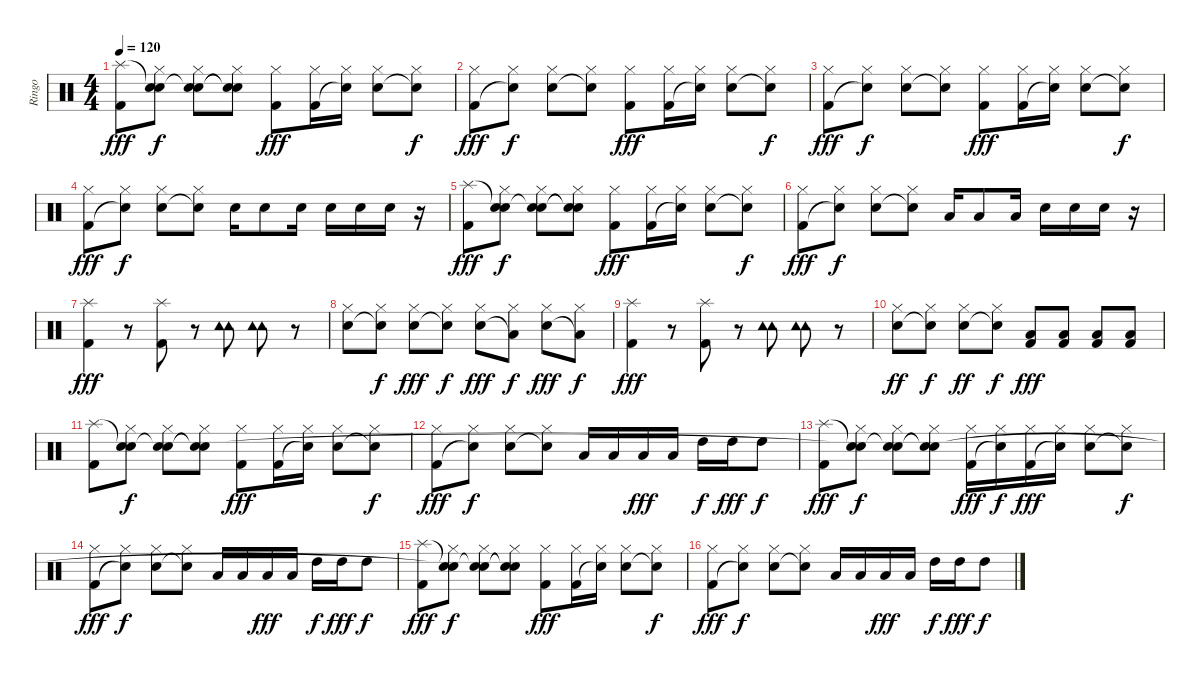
\track ("Ringo" "Ringo") {instrument percussion}
\staff {score}
\articulation defaults
\ts (4 4)
\tempo 120
\clef neutral
\ks c
("Splash (hit)" "Kick (hit) 2").8{dy fff} ("Snare (hit)"{t} "Hi-Hat (closed)" "Snare (hit)").8{dy f} ("Snare (hit)"{t} "Hi-Hat (closed)" "Snare (hit) 2").8 ("Snare (hit)"{t} "Hi-Hat (closed)" "Snare (hit)"{t}).8 ("Hi-Hat (closed)" "Kick (hit) 2").8{dy fff} ("Hi-Hat (closed)" "Kick (hit) 2").16 ("Hi-Hat (closed)" "Snare (hit)"{t}).16 ("Hi-Hat (closed)" "Snare (hit) 2").8 ("Hi-Hat (closed)" "Snare (hit)"{t}).8{dy f} |
("Hi-Hat (closed)" "Kick (hit) 2").8{dy fff} ("Hi-Hat (closed)" "Snare (hit)"{t}).8{dy f} ("Hi-Hat (closed)" "Snare (hit) 2").8 ("Hi-Hat (closed)" "Snare (hit)"{t}).8 ("Hi-Hat (closed)" "Kick (hit) 2").8{dy fff} ("Hi-Hat (closed)" "Kick (hit) 2").16 ("Hi-Hat (closed)" "Snare (hit)"{t}).16 ("Hi-Hat (closed)" "Snare (hit) 2").8 ("Hi-Hat (closed)" "Snare (hit)"{t}).8{dy f} |
("Hi-Hat (closed)" "Kick (hit) 2").8{dy fff} ("Hi-Hat (closed)" "Snare (hit)"{t}).8{dy f} ("Hi-Hat (closed)" "Snare (hit) 2").8 ("Hi-Hat (closed)" "Snare (hit)"{t}).8 ("Hi-Hat (closed)" "Kick (hit) 2").8{dy fff} ("Hi-Hat (closed)" "Kick (hit) 2").16 ("Hi-Hat (closed)" "Snare (hit)"{t}).16 ("Hi-Hat (closed)" "Snare (hit) 2").8 ("Hi-Hat (closed)" "Snare (hit)"{t}).8{dy f} |
("Hi-Hat (closed)" "Kick (hit) 2").8{dy fff} ("Hi-Hat (closed)" "Snare (hit)"{t}).8{dy f} ("Hi-Hat (closed)" "Snare (hit) 2").8 ("Hi-Hat (closed)" "Snare (hit)"{t}).8 "Snare (hit) 2".16 "Snare (hit) 2".8 "Snare (hit) 2".16 "Snare (hit) 2".16 "Snare (hit) 2".16 "Snare (hit) 2".16 r.16 |
("Splash (hit)" "Kick (hit) 2").8{dy fff} ("Snare (hit)"{t} "Hi-Hat (closed)" "Snare (hit)").8{dy f} ("Snare (hit)"{t} "Hi-Hat (closed)" "Snare (hit) 2").8 ("Snare (hit)"{t} "Hi-Hat (closed)" "Snare (hit)"{t}).8 ("Hi-Hat (closed)" "Kick (hit) 2").8{dy fff} ("Hi-Hat (closed)" "Kick (hit) 2").16 ("Hi-Hat (closed)" "Snare (hit)"{t}).16 ("Hi-Hat (closed)" "Snare (hit) 2").8 ("Hi-Hat (closed)" "Snare (hit)"{t}).8{dy f} |
("Hi-Hat (closed)" "Kick (hit) 2").8{dy fff} ("Hi-Hat (closed)" "Snare (hit)"{t}).8{dy f} ("Hi-Hat (closed)" "Snare (hit) 2").8 ("Hi-Hat (closed)" "Snare (hit)"{t}).8 "Low Floor Tom (hit)".16 "Low Floor Tom (hit)".8 "Low Floor Tom (hit)".16 "Snare (hit) 2".16 "Snare (hit) 2".16 "Snare (hit) 2".16 r.16 |
("Splash (hit)" "Kick (hit) 2").4{dy fff} r.8 ("Splash (hit)" "Kick (hit) 2").8 r.8 ("Tambourine (hit)" "Tambourine (hit)").8 ("Tambourine (hit)" "Tambourine (hit)").8 r.8 |
("Hi-Hat (closed)" "Snare (hit) 2").8 ("Hi-Hat (closed)" "Snare (hit)"{t}).8{dy f} ("Hi-Hat (closed)" "Snare (hit) 2").8{dy fff} ("Hi-Hat (closed)" "Snare (hit)"{t}).8{dy f} ("Hi-Hat (closed)" "Snare (hit) 2").8{dy fff} ("Hi-Hat (closed)" "Low Floor Tom (hit)"{t}).8{dy f} ("Hi-Hat (closed)" "Snare (hit) 2").8{dy fff} ("Hi-Hat (closed)" "Low Floor Tom (hit)"{t}).8{dy f} |
("Splash (hit)" "Kick (hit) 2").4{dy fff} r.8 ("Splash (hit)" "Kick (hit) 2").8 r.8 ("Tambourine (hit)" "Tambourine (hit)").8 ("Tambourine (hit)" "Tambourine (hit)").8 r.8 |
("Hi-Hat (closed)" "Snare (hit) 2").8{dy ff} ("Hi-Hat (closed)" "Snare (hit)"{t}).8{dy f} ("Hi-Hat (closed)" "Snare (hit) 2").8{dy ff} ("Hi-Hat (closed)" "Snare (hit)"{t}).8{dy f} ("Low Floor Tom (hit)" "Kick (hit) 2").8{dy fff} ("Low Floor Tom (hit)" "Kick (hit) 2").8 ("Low Floor Tom (hit)" "Kick (hit) 2").8 ("Low Floor Tom (hit)" "Kick (hit) 2").8 |
("Splash (hit)" "Kick (hit) 2").8 ("Snare (hit)"{t} "Hi-Hat (closed)" "Snare (hit)").8{dy f} ("Snare (hit)"{t} "Hi-Hat (closed)" "Snare (hit) 2").8 ("Snare (hit)"{t} "Hi-Hat (closed)" "Snare (hit)"{t}).8 ("Hi-Hat (closed)" "Kick (hit) 2").8{dy fff} ("Hi-Hat (closed)" "Kick (hit) 2").16 ("Hi-Hat (closed)" "Snare (hit)"{t}).16 ("Hi-Hat (closed)" "Snare (hit) 2").8 ("Hi-Hat (closed)" "Snare (hit)"{t}).8{dy f} |
("Hi-Hat (closed)" "Kick (hit) 2").8{dy fff} ("Hi-Hat (closed)" "Snare (hit)"{t}).8{dy f} ("Hi-Hat (closed)" "Snare (hit) 2").8 ("Hi-Hat (closed)" "Snare (hit)"{t}).8 "Low Floor Tom (hit)".16 "Low Floor Tom (hit)".16 "Low Floor Tom (hit)".16{dy fff} "Low Floor Tom (hit)".16 "High Tom (hit)".16{dy f} "High Tom (hit)".16{dy fff} "High Tom (hit)".8{dy f} |
("Splash (hit)" "Kick (hit) 2").8{dy fff} ("Snare (hit)"{t} "Hi-Hat (closed)" "Snare (hit)"{t}).8{dy f} ("Snare (hit)"{t} "Hi-Hat (closed)" "Snare (hit) 2").8 ("Snare (hit)"{t} "Hi-Hat (closed)" "Snare (hit)"{t}).8 ("Hi-Hat (closed)" "Kick (hit) 2").16{dy fff} ("Hi-Hat (closed)" "Snare (hit)"{t}).16{dy f} ("Hi-Hat (closed)" "Kick (hit) 2").16{dy fff} ("Hi-Hat (closed)" "Snare (hit)"{t}).16 ("Hi-Hat (closed)" "Snare (hit) 2").8 ("Hi-Hat (closed)" "Snare (hit)"{t}).8{dy f} |
("Hi-Hat (closed)" "Kick (hit) 2").8{dy fff} ("Hi-Hat (closed)" "Snare (hit)"{t}).8{dy f} ("Hi-Hat (closed)" "Snare (hit) 2").8 ("Hi-Hat (closed)" "Snare (hit)"{t}).8 "Low Floor Tom (hit)".16 "Low Floor Tom (hit)".16 "Low Floor Tom (hit)".16{dy fff} "Low Floor Tom (hit)".16 "High Tom (hit)".16{dy f} "High Tom (hit)".16{dy fff} "High Tom (hit)".8{dy f} |
("Splash (hit)" "Kick (hit) 2").8{dy fff volume 9} ("Snare (hit)"{t} "Hi-Hat (closed)" "Snare (hit)"{t}).8{dy f} ("Snare (hit)"{t} "Hi-Hat (closed)" "Snare (hit) 2").8 ("Snare (hit)"{t} "Hi-Hat (closed)" "Snare (hit)"{t}).8 ("Hi-Hat (closed)" "Kick (hit) 2").8{dy fff} ("Hi-Hat (closed)" "Kick (hit) 2").16 ("Hi-Hat (closed)" "Snare (hit)"{t}).16 ("Hi-Hat (closed)" "Snare (hit) 2").8 ("Hi-Hat (closed)" "Snare (hit)"{t}).8{dy f} |
("Hi-Hat (closed)" "Kick (hit) 2").8{dy fff} ("Hi-Hat (closed)" "Snare (hit)"{t}).8{dy f} ("Hi-Hat (closed)" "Snare (hit) 2").8 ("Hi-Hat (closed)" "Snare (hit)"{t}).8 "Low Floor Tom (hit)".16 "Low Floor Tom (hit)".16 "Low Floor Tom (hit)".16{dy fff} "Low Floor Tom (hit)".16 "High Tom (hit)".16{dy f} "High Tom (hit)".16{dy fff} "High Tom (hit)".8{dy f}
